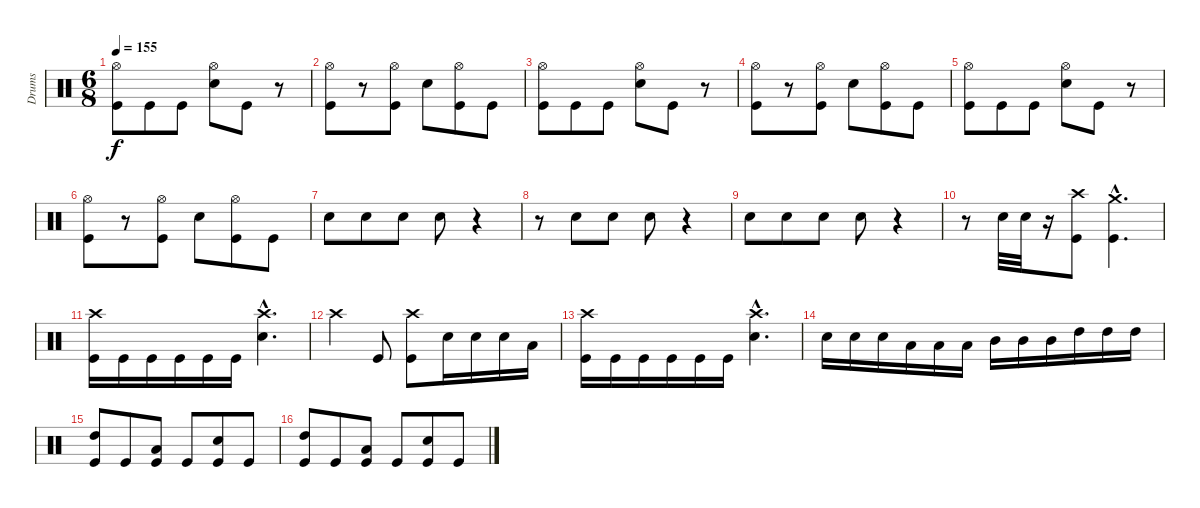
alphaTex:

\track ("Drums" "Drums") {instrument percussion}
\staff {score}
\articulation defaults
\ts (6 8)
\tempo 155
\clef neutral
\ks c
("Kick (hit)" "Hi-Hat (open)").8{dy f} "Kick (hit)".8 "Kick (hit)".8 ("Snare (hit) 2" "Hi-Hat (open)").8 "Kick (hit)".8 r.8 |
("Kick (hit)" "Hi-Hat (open)").8 r.8 ("Kick (hit)" "Hi-Hat (open)").8 "Snare (hit) 2".8 ("Kick (hit)" "Hi-Hat (open)").8 "Kick (hit)".8 |
("Kick (hit)" "Hi-Hat (open)").8 "Kick (hit)".8 "Kick (hit)".8 ("Snare (hit) 2" "Hi-Hat (open)").8 "Kick (hit)".8 r.8 |
("Kick (hit)" "Hi-Hat (open)").8 r.8 ("Kick (hit)" "Hi-Hat (open)").8 "Snare (hit) 2".8 ("Kick (hit)" "Hi-Hat (open)").8 "Kick (hit)".8 |
("Kick (hit)" "Hi-Hat (open)").8 "Kick (hit)".8 "Kick (hit)".8 ("Snare (hit) 2" "Hi-Hat (open)").8 "Kick (hit)".8 r.8 |
("Kick (hit)" "Hi-Hat (open)").8 r.8 ("Kick (hit)" "Hi-Hat (open)").8 "Snare (hit) 2".8 ("Kick (hit)" "Hi-Hat (open)").8 "Kick (hit)".8 |
"Snare (hit) 2".8 "Snare (hit) 2".8 "Snare (hit) 2".8 "Snare (hit) 2".8 r.4 |
r.8 "Snare (hit) 2".8 "Snare (hit) 2".8 "Snare (hit) 2".8 r.4 |
"Snare (hit) 2".8 "Snare (hit) 2".8 "Snare (hit) 2".8 "Snare (hit) 2".8 r.4 |
r.8 "Snare (hit) 2".32 "Snare (hit) 2".32 r.16 ("Kick (hit)" "Crash high (hit)").8 ("Kick (hit)"{hac} "Crash medium (hit)"{hac}).4{d} |
("Kick (hit)" "Crash high (hit)").16 "Kick (hit)".16 "Kick (hit)".16 "Kick (hit)".16 "Kick (hit)".16 "Kick (hit)".16 ("Snare (hit) 2"{hac} "Crash high (hit)"{hac}).4{d} |
"Crash high (hit)".4 "Kick (hit)".8 ("Kick (hit)" "Crash high (hit)").8 "Snare (hit) 2".16 "Snare (hit) 2".16 "Snare (hit) 2".16 "Low Tom (hit)".16 |
("Kick (hit)" "Crash high (hit)").16 "Kick (hit)".16 "Kick (hit)".16 "Kick (hit)".16 "Kick (hit)".16 "Kick (hit)".16 ("Snare (hit) 2"{hac} "Crash high (hit)"{hac}).4{d} |
"Snare (hit) 2".16 "Snare (hit) 2".16 "Snare (hit) 2".16 "Low Tom (hit)".16 "Low Tom (hit)".16 "Low Tom (hit)".16 "Mid Tom (hit)".16 "Mid Tom (hit)".16 "Mid Tom (hit)".16 "High Tom (hit)".16 "High Tom (hit)".16 "High Tom (hit)".16 |
("Kick (hit)" "High Tom (hit)").8 "Kick (hit)".8 ("Kick (hit)" "Low Tom (hit)").8 "Kick (hit)".8 ("Kick (hit)" "Snare (hit) 2").8 "Kick (hit)".8 |
("Kick (hit)" "High Tom (hit)").8 "Kick (hit)".8 ("Kick (hit)" "Low Tom (hit)").8 "Kick (hit)".8 ("Kick (hit)" "Snare (hit) 2").8 "Kick (hit)".8
